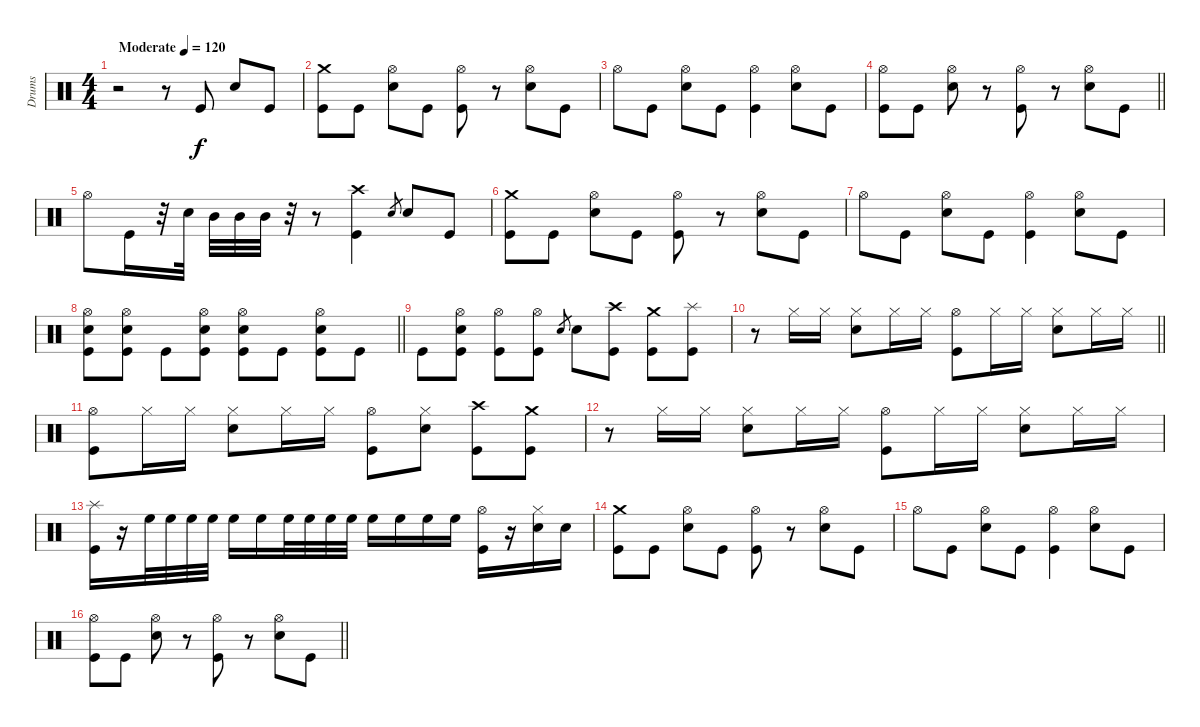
\track ("Drums" "Drums") {instrument percussion}
\staff {score}
\articulation defaults
\ts (4 4)
\tempo (120 "Moderate")
\clef neutral
\ks c
r.2{dy f} r.8 "Kick (hit)".8 "Snare (hit) 2".8 "Kick (hit)".8 |
("Crash medium (hit)" "Kick (hit)").8 "Kick (hit)".8 ("Hi-Hat (open)" "Snare (hit) 2").8 "Kick (hit)".8 ("Hi-Hat (open)" "Kick (hit)").8 r.8 ("Hi-Hat (open)" "Snare (hit) 2").8 "Kick (hit)".8 |
"Hi-Hat (open)".8 "Kick (hit)".8 ("Hi-Hat (open)" "Snare (hit) 2").8 "Kick (hit)".8 ("Hi-Hat (open)" "Kick (hit)").4 ("Hi-Hat (open)" "Snare (hit) 2").8 "Kick (hit)".8 |
\barLineRight lightlight
("Hi-Hat (open)" "Kick (hit)").8 "Kick (hit)".8 ("Hi-Hat (open)" "Snare (hit) 2").8 r.8 ("Hi-Hat (open)" "Kick (hit)").8 r.8 ("Hi-Hat (open)" "Snare (hit) 2").8 "Kick (hit)".8 |
\section ("" "")
"Hi-Hat (open)".8 "Kick (hit)".16 r.32 "Snare (hit) 2".32 "Mid Tom (hit)".32 "Mid Tom (hit)".32 "Mid Tom (hit)".32 r.32 r.8 ("Crash high (hit)" "Kick (hit)").4 "Snare (hit) 2".8{gr} "Snare (hit) 2".8 "Kick (hit)".8 |
("Crash medium (hit)" "Kick (hit)").8 "Kick (hit)".8 ("Hi-Hat (open)" "Snare (hit) 2").8 "Kick (hit)".8 ("Hi-Hat (open)" "Kick (hit)").8 r.8 ("Hi-Hat (open)" "Snare (hit) 2").8 "Kick (hit)".8 |
"Hi-Hat (open)".8 "Kick (hit)".8 ("Hi-Hat (open)" "Snare (hit) 2").8 "Kick (hit)".8 ("Hi-Hat (open)" "Kick (hit)").4 ("Hi-Hat (open)" "Snare (hit) 2").8 "Kick (hit)".8 |
\barLineRight lightlight
("Hi-Hat (open)" "Snare (hit) 2" "Kick (hit)").8 ("Hi-Hat (open)" "Snare (hit) 2" "Kick (hit)").8 "Kick (hit)".8 ("Hi-Hat (open)" "Snare (hit) 2" "Kick (hit)").8 ("Hi-Hat (open)" "Snare (hit) 2" "Kick (hit)").8 "Kick (hit)".8 ("Hi-Hat (open)" "Snare (hit) 2" "Kick (hit)").8 "Kick (hit)".8 |
"Kick (hit)".8 ("Hi-Hat (open)" "Snare (hit) 2" "Kick (hit)").8 ("Hi-Hat (open)" "Kick (hit)").8 ("Hi-Hat (open)" "Kick (hit)").8 "Snare (hit) 2".8{gr} "Snare (hit) 2".8 ("Crash high (hit)" "Kick (hit)").8 ("Crash medium (hit)" "Kick (hit)").8 ("Splash (hit)" "Kick (hit)").8 |
\barLineRight lightlight
r.8 "Hi-Hat (closed)".16 "Hi-Hat (closed)".16 ("Hi-Hat (closed)" "Snare (hit) 2").8 "Hi-Hat (closed)".16 "Hi-Hat (closed)".16 ("Hi-Hat (open)" "Kick (hit)").8 "Hi-Hat (closed)".16 "Hi-Hat (closed)".16 ("Hi-Hat (closed)" "Snare (hit) 2").8 "Hi-Hat (closed)".16 "Hi-Hat (closed)".16 |
("Hi-Hat (open)" "Kick (hit)").8 "Hi-Hat (closed)".16 "Hi-Hat (closed)".16 ("Hi-Hat (closed)" "Snare (hit) 2").8 "Hi-Hat (closed)".16 "Hi-Hat (closed)".16 ("Hi-Hat (open)" "Kick (hit)").8 ("Hi-Hat (closed)" "Snare (hit) 2").8 ("Crash high (hit)" "Kick (hit)").8 ("Crash medium (hit)" "Kick (hit)").8 |
r.8 "Hi-Hat (closed)".16 "Hi-Hat (closed)".16 ("Hi-Hat (closed)" "Snare (hit) 2").8 "Hi-Hat (closed)".16 "Hi-Hat (closed)".16 ("Hi-Hat (open)" "Kick (hit)").8 "Hi-Hat (closed)".16 "Hi-Hat (closed)".16 ("Hi-Hat (closed)" "Snare (hit) 2").8 "Hi-Hat (closed)".16 "Hi-Hat (closed)".16 |
("Splash (hit)" "Kick (hit)").16 r.16 "High Floor Tom (hit)".32 "High Floor Tom (hit)".32 "High Floor Tom (hit)".32 "High Floor Tom (hit)".32 "High Floor Tom (hit)".16 "High Floor Tom (hit)".16 "High Floor Tom (hit)".32 "High Floor Tom (hit)".32 "High Floor Tom (hit)".32 "High Floor Tom (hit)".32 "High Floor Tom (hit)".16 "High Floor Tom (hit)".16 "High Floor Tom (hit)".16 "High Floor Tom (hit)".16 ("Hi-Hat (open)" "Kick (hit)").16 r.16 ("Hi-Hat (closed)" "Snare (hit) 2").16 "Snare (hit) 2".16 |
("Crash medium (hit)" "Kick (hit)").8 "Kick (hit)".8 ("Hi-Hat (open)" "Snare (hit) 2").8 "Kick (hit)".8 ("Hi-Hat (open)" "Kick (hit)").8 r.8 ("Hi-Hat (open)" "Snare (hit) 2").8 "Kick (hit)".8 |
"Hi-Hat (open)".8 "Kick (hit)".8 ("Hi-Hat (open)" "Snare (hit) 2").8 "Kick (hit)".8 ("Hi-Hat (open)" "Kick (hit)").4 ("Hi-Hat (open)" "Snare (hit) 2").8 "Kick (hit)".8 |
\barLineRight lightlight
("Hi-Hat (open)" "Kick (hit)").8 "Kick (hit)".8 ("Hi-Hat (open)" "Snare (hit) 2").8 r.8 ("Hi-Hat (open)" "Kick (hit)").8 r.8 ("Hi-Hat (open)" "Snare (hit) 2").8 "Kick (hit)".8
